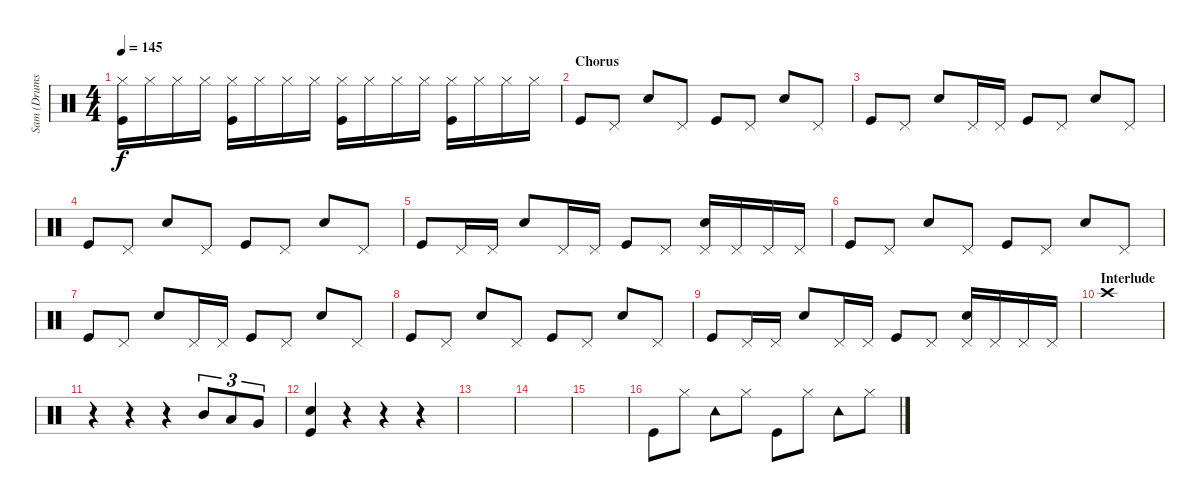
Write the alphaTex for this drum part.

\track ("Sam (Drums)" "Sam (Drums") {instrument percussion}
\staff {score}
\articulation defaults
\ts (4 4)
\tempo 145
\clef neutral
\ks c
("Hi-Hat (closed)" "Kick (hit)").16{dy f} "Hi-Hat (closed)".16 "Hi-Hat (closed)".16 "Hi-Hat (closed)".16 ("Hi-Hat (closed)" "Kick (hit)").16 "Hi-Hat (closed)".16 "Hi-Hat (closed)".16 "Hi-Hat (closed)".16 ("Hi-Hat (closed)" "Kick (hit)").16 "Hi-Hat (closed)".16 "Hi-Hat (closed)".16 "Hi-Hat (closed)".16 ("Hi-Hat (closed)" "Kick (hit)").16 "Hi-Hat (closed)".16 "Hi-Hat (closed)".16 "Hi-Hat (closed)".16 |
\section ("" "Chorus")
"Kick (hit)".8 "Pedal Hi-Hat (hit)".8 "Snare (hit) 2".8 "Pedal Hi-Hat (hit)".8 "Kick (hit)".8 "Pedal Hi-Hat (hit)".8 "Snare (hit) 2".8 "Pedal Hi-Hat (hit)".8 |
"Kick (hit)".8 "Pedal Hi-Hat (hit)".8 "Snare (hit) 2".8 "Pedal Hi-Hat (hit)".16 "Pedal Hi-Hat (hit)".16 "Kick (hit)".8 "Pedal Hi-Hat (hit)".8 "Snare (hit) 2".8 "Pedal Hi-Hat (hit)".8 |
"Kick (hit)".8 "Pedal Hi-Hat (hit)".8 "Snare (hit) 2".8 "Pedal Hi-Hat (hit)".8 "Kick (hit)".8 "Pedal Hi-Hat (hit)".8 "Snare (hit) 2".8 "Pedal Hi-Hat (hit)".8 |
"Kick (hit)".8 "Pedal Hi-Hat (hit)".16 "Pedal Hi-Hat (hit)".16 "Snare (hit) 2".8 "Pedal Hi-Hat (hit)".16 "Pedal Hi-Hat (hit)".16 "Kick (hit)".8 "Pedal Hi-Hat (hit)".8 ("Pedal Hi-Hat (hit)" "Snare (hit) 2").16 "Pedal Hi-Hat (hit)".16 "Pedal Hi-Hat (hit)".16 "Pedal Hi-Hat (hit)".16 |
"Kick (hit)".8 "Pedal Hi-Hat (hit)".8 "Snare (hit) 2".8 "Pedal Hi-Hat (hit)".8 "Kick (hit)".8 "Pedal Hi-Hat (hit)".8 "Snare (hit) 2".8 "Pedal Hi-Hat (hit)".8 |
"Kick (hit)".8 "Pedal Hi-Hat (hit)".8 "Snare (hit) 2".8 "Pedal Hi-Hat (hit)".16 "Pedal Hi-Hat (hit)".16 "Kick (hit)".8 "Pedal Hi-Hat (hit)".8 "Snare (hit) 2".8 "Pedal Hi-Hat (hit)".8 |
"Kick (hit)".8 "Pedal Hi-Hat (hit)".8 "Snare (hit) 2".8 "Pedal Hi-Hat (hit)".8 "Kick (hit)".8 "Pedal Hi-Hat (hit)".8 "Snare (hit) 2".8 "Pedal Hi-Hat (hit)".8 |
"Kick (hit)".8 "Pedal Hi-Hat (hit)".16 "Pedal Hi-Hat (hit)".16 "Snare (hit) 2".8 "Pedal Hi-Hat (hit)".16 "Pedal Hi-Hat (hit)".16 "Kick (hit)".8 "Pedal Hi-Hat (hit)".8 ("Pedal Hi-Hat (hit)" "Snare (hit) 2").16 "Pedal Hi-Hat (hit)".16 "Pedal Hi-Hat (hit)".16 "Pedal Hi-Hat (hit)".16 |
\section ("" "Interlude")
"Crash high (hit)".1 |
r.4 r.4 r.4 "Mid Tom (hit)".8{tu (3 2)} "Low Tom (hit)".8{tu (3 2)} "Very Low Tom (hit)".8{tu (3 2)} |
("Snare (hit) 2" "Kick (hit)").4 r.4 r.4 r.4 |
|
|
|
"Kick (hit)".8 "Hi-Hat (closed)".8 "Tambourine (hit)".8 "Hi-Hat (closed)".8 "Kick (hit)".8 "Hi-Hat (closed)".8 "Tambourine (hit)".8 "Hi-Hat (closed)".8
